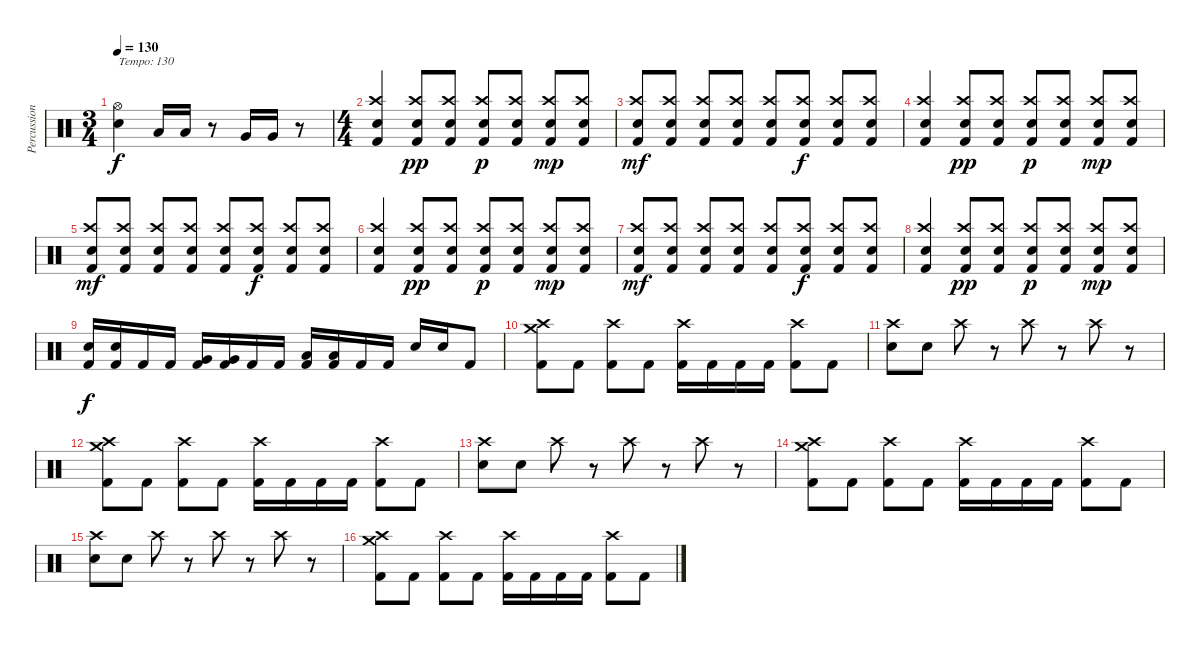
\track ("Percussion" "Percussion") {instrument percussion}
\staff {score}
\articulation defaults
\ts (3 4)
\tempo 130
\clef neutral
\ks c
("Hi-Hat (open)" "Electric Snare (hit)").4{txt "Tempo: 130" dy f} "Low Tom (hit)".16 "Low Tom (hit)".16 r.8 "Very Low Tom (hit)".16 "Very Low Tom (hit)".16 r.8 |
\ts (4 4)
("Crash high (hit)" "Electric Snare (hit)" "Kick (hit) 2").4 ("Crash high (hit)" "Electric Snare (hit)" "Kick (hit) 2").8{dy pp} ("Crash high (hit)" "Electric Snare (hit)" "Kick (hit) 2").8 ("Crash high (hit)" "Electric Snare (hit)" "Kick (hit) 2").8{dy p} ("Crash high (hit)" "Electric Snare (hit)" "Kick (hit) 2").8 ("Crash high (hit)" "Electric Snare (hit)" "Kick (hit) 2").8{dy mp} ("Crash high (hit)" "Electric Snare (hit)" "Kick (hit) 2").8 |
("Crash high (hit)" "Electric Snare (hit)" "Kick (hit) 2").8{dy mf} ("Crash high (hit)" "Electric Snare (hit)" "Kick (hit) 2").8 ("Crash high (hit)" "Electric Snare (hit)" "Kick (hit) 2").8 ("Crash high (hit)" "Electric Snare (hit)" "Kick (hit) 2").8 ("Crash high (hit)" "Electric Snare (hit)" "Kick (hit) 2").8 ("Crash high (hit)" "Electric Snare (hit)" "Kick (hit) 2").8{dy f} ("Crash high (hit)" "Electric Snare (hit)" "Kick (hit) 2").8 ("Crash high (hit)" "Electric Snare (hit)" "Kick (hit) 2").8 |
("Crash high (hit)" "Electric Snare (hit)" "Kick (hit) 2").4 ("Crash high (hit)" "Electric Snare (hit)" "Kick (hit) 2").8{dy pp} ("Crash high (hit)" "Electric Snare (hit)" "Kick (hit) 2").8 ("Crash high (hit)" "Electric Snare (hit)" "Kick (hit) 2").8{dy p} ("Crash high (hit)" "Electric Snare (hit)" "Kick (hit) 2").8 ("Crash high (hit)" "Electric Snare (hit)" "Kick (hit) 2").8{dy mp} ("Crash high (hit)" "Electric Snare (hit)" "Kick (hit) 2").8 |
("Crash high (hit)" "Electric Snare (hit)" "Kick (hit) 2").8{dy mf} ("Crash high (hit)" "Electric Snare (hit)" "Kick (hit) 2").8 ("Crash high (hit)" "Electric Snare (hit)" "Kick (hit) 2").8 ("Crash high (hit)" "Electric Snare (hit)" "Kick (hit) 2").8 ("Crash high (hit)" "Electric Snare (hit)" "Kick (hit) 2").8 ("Crash high (hit)" "Electric Snare (hit)" "Kick (hit) 2").8{dy f} ("Crash high (hit)" "Electric Snare (hit)" "Kick (hit) 2").8 ("Crash high (hit)" "Electric Snare (hit)" "Kick (hit) 2").8 |
("Crash high (hit)" "Electric Snare (hit)" "Kick (hit) 2").4 ("Crash high (hit)" "Electric Snare (hit)" "Kick (hit) 2").8{dy pp} ("Crash high (hit)" "Electric Snare (hit)" "Kick (hit) 2").8 ("Crash high (hit)" "Electric Snare (hit)" "Kick (hit) 2").8{dy p} ("Crash high (hit)" "Electric Snare (hit)" "Kick (hit) 2").8 ("Crash high (hit)" "Electric Snare (hit)" "Kick (hit) 2").8{dy mp} ("Crash high (hit)" "Electric Snare (hit)" "Kick (hit) 2").8 |
("Crash high (hit)" "Electric Snare (hit)" "Kick (hit) 2").8{dy mf} ("Crash high (hit)" "Electric Snare (hit)" "Kick (hit) 2").8 ("Crash high (hit)" "Electric Snare (hit)" "Kick (hit) 2").8 ("Crash high (hit)" "Electric Snare (hit)" "Kick (hit) 2").8 ("Crash high (hit)" "Electric Snare (hit)" "Kick (hit) 2").8 ("Crash high (hit)" "Electric Snare (hit)" "Kick (hit) 2").8{dy f} ("Crash high (hit)" "Electric Snare (hit)" "Kick (hit) 2").8 ("Crash high (hit)" "Electric Snare (hit)" "Kick (hit) 2").8 |
("Crash high (hit)" "Electric Snare (hit)" "Kick (hit) 2").4 ("Crash high (hit)" "Electric Snare (hit)" "Kick (hit) 2").8{dy pp} ("Crash high (hit)" "Electric Snare (hit)" "Kick (hit) 2").8 ("Crash high (hit)" "Electric Snare (hit)" "Kick (hit) 2").8{dy p} ("Crash high (hit)" "Electric Snare (hit)" "Kick (hit) 2").8 ("Crash high (hit)" "Electric Snare (hit)" "Kick (hit) 2").8{dy mp} ("Crash high (hit)" "Electric Snare (hit)" "Kick (hit) 2").8 |
("Electric Snare (hit)" "Kick (hit) 2").16{dy f} ("Electric Snare (hit)" "Kick (hit) 2").16 "Kick (hit) 2".16 "Kick (hit) 2".16 ("Very Low Tom (hit)" "Kick (hit) 2").16 ("Very Low Tom (hit)" "Kick (hit) 2").16 "Kick (hit) 2".16 "Kick (hit) 2".16 ("Low Floor Tom (hit)" "Kick (hit) 2").16 ("Low Floor Tom (hit)" "Kick (hit) 2").16 "Kick (hit) 2".16 "Kick (hit) 2".16 "Electric Snare (hit)".16 "Electric Snare (hit)".16 "Kick (hit) 2".8 |
("Crash medium (hit)" "Crash high (hit)" "Kick (hit) 2").8 "Kick (hit) 2".8 ("Crash high (hit)" "Kick (hit) 2").8 "Kick (hit) 2".8 ("Crash high (hit)" "Kick (hit) 2").16 "Kick (hit) 2".16 "Kick (hit) 2".16 "Kick (hit) 2".16 ("Crash high (hit)" "Kick (hit) 2").8 "Kick (hit) 2".8 |
("Crash high (hit)" "Electric Snare (hit)").8 "Electric Snare (hit)".8 "Crash high (hit)".8 r.8 "Crash high (hit)".8 r.8 "Crash high (hit)".8 r.8 |
("Crash medium (hit)" "Crash high (hit)" "Kick (hit) 2").8 "Kick (hit) 2".8 ("Crash high (hit)" "Kick (hit) 2").8 "Kick (hit) 2".8 ("Crash high (hit)" "Kick (hit) 2").16 "Kick (hit) 2".16 "Kick (hit) 2".16 "Kick (hit) 2".16 ("Crash high (hit)" "Kick (hit) 2").8 "Kick (hit) 2".8 |
("Crash high (hit)" "Electric Snare (hit)").8 "Electric Snare (hit)".8 "Crash high (hit)".8 r.8 "Crash high (hit)".8 r.8 "Crash high (hit)".8 r.8 |
("Crash medium (hit)" "Crash high (hit)" "Kick (hit) 2").8 "Kick (hit) 2".8 ("Crash high (hit)" "Kick (hit) 2").8 "Kick (hit) 2".8 ("Crash high (hit)" "Kick (hit) 2").16 "Kick (hit) 2".16 "Kick (hit) 2".16 "Kick (hit) 2".16 ("Crash high (hit)" "Kick (hit) 2").8 "Kick (hit) 2".8 |
("Crash high (hit)" "Electric Snare (hit)").8 "Electric Snare (hit)".8 "Crash high (hit)".8 r.8 "Crash high (hit)".8 r.8 "Crash high (hit)".8 r.8 |
("Crash medium (hit)" "Crash high (hit)" "Kick (hit) 2").8 "Kick (hit) 2".8 ("Crash high (hit)" "Kick (hit) 2").8 "Kick (hit) 2".8 ("Crash high (hit)" "Kick (hit) 2").16 "Kick (hit) 2".16 "Kick (hit) 2".16 "Kick (hit) 2".16 ("Crash high (hit)" "Kick (hit) 2").8 "Kick (hit) 2".8
